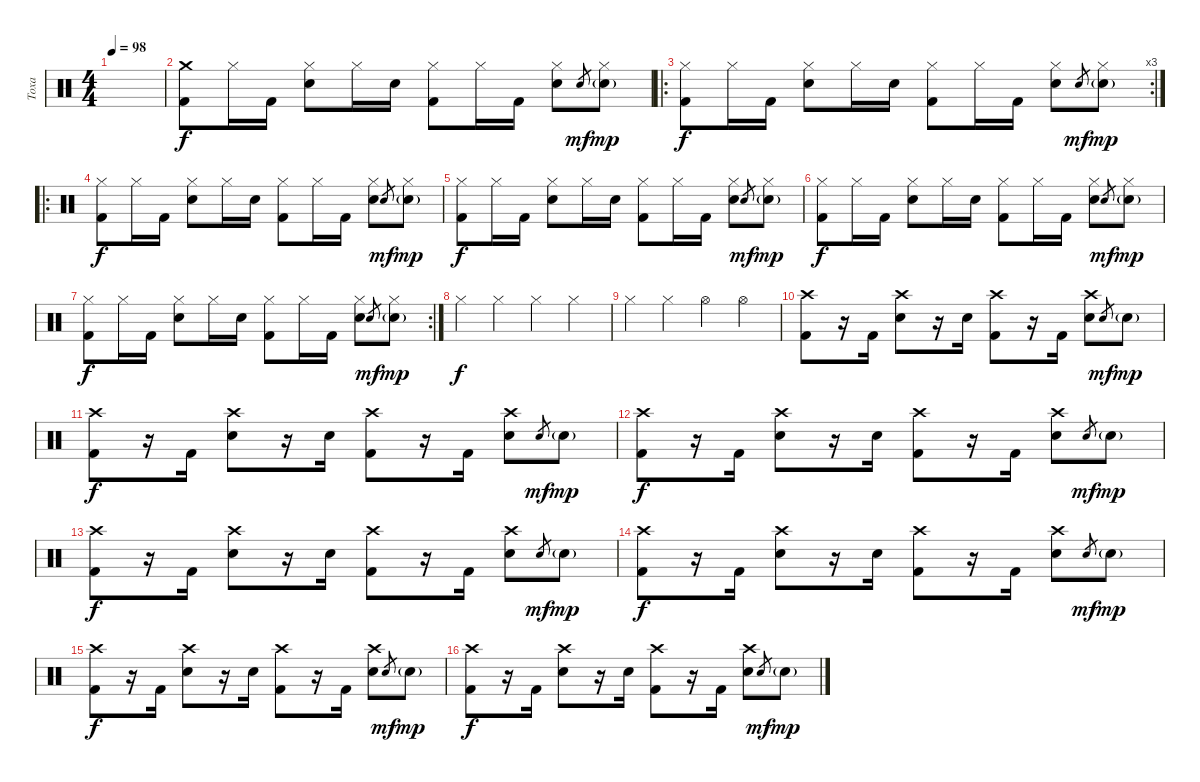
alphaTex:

\track ("Toxa" "Toxa") {instrument percussion}
\staff {score}
\articulation defaults
\ts (4 4)
\tempo 98
\clef neutral
\ks c
|
("Crash medium (hit)" "Kick (hit) 2").8 "Hi-Hat (closed)".16 "Kick (hit) 2".16 ("Hi-Hat (closed)" "Electric Snare (hit)").8 "Hi-Hat (closed)".16 "Electric Snare (hit)".16 ("Hi-Hat (closed)" "Kick (hit) 2").8 "Hi-Hat (closed)".16 "Kick (hit) 2".16 ("Hi-Hat (closed)" "Electric Snare (hit)").8 "Electric Snare (hit)".8{gr dy mf} ("Hi-Hat (closed)" "Electric Snare (hit)"{g}).8{dy mp} |
\ro
\rc 3
("Hi-Hat (closed)" "Kick (hit) 2").8{dy f} "Hi-Hat (closed)".16 "Kick (hit) 2".16 ("Hi-Hat (closed)" "Electric Snare (hit)").8 "Hi-Hat (closed)".16 "Electric Snare (hit)".16 ("Hi-Hat (closed)" "Kick (hit) 2").8 "Hi-Hat (closed)".16 "Kick (hit) 2".16 ("Hi-Hat (closed)" "Electric Snare (hit)").8 "Electric Snare (hit)".8{gr dy mf} ("Hi-Hat (closed)" "Electric Snare (hit)"{g}).8{dy mp} |
\ro
("Hi-Hat (closed)" "Kick (hit) 2").8{dy f} "Hi-Hat (closed)".16 "Kick (hit) 2".16 ("Hi-Hat (closed)" "Electric Snare (hit)").8 "Hi-Hat (closed)".16 "Electric Snare (hit)".16 ("Hi-Hat (closed)" "Kick (hit) 2").8 "Hi-Hat (closed)".16 "Kick (hit) 2".16 ("Hi-Hat (closed)" "Electric Snare (hit)").8 "Electric Snare (hit)".8{gr dy mf} ("Hi-Hat (closed)" "Electric Snare (hit)"{g}).8{dy mp} |
("Hi-Hat (closed)" "Kick (hit) 2").8{dy f} "Hi-Hat (closed)".16 "Kick (hit) 2".16 ("Hi-Hat (closed)" "Electric Snare (hit)").8 "Hi-Hat (closed)".16 "Electric Snare (hit)".16 ("Hi-Hat (closed)" "Kick (hit) 2").8 "Hi-Hat (closed)".16 "Kick (hit) 2".16 ("Hi-Hat (closed)" "Electric Snare (hit)").8 "Electric Snare (hit)".8{gr dy mf} ("Hi-Hat (closed)" "Electric Snare (hit)"{g}).8{dy mp} |
("Hi-Hat (closed)" "Kick (hit) 2").8{dy f} "Hi-Hat (closed)".16 "Kick (hit) 2".16 ("Hi-Hat (closed)" "Electric Snare (hit)").8 "Hi-Hat (closed)".16 "Electric Snare (hit)".16 ("Hi-Hat (closed)" "Kick (hit) 2").8 "Hi-Hat (closed)".16 "Kick (hit) 2".16 ("Hi-Hat (closed)" "Electric Snare (hit)").8 "Electric Snare (hit)".8{gr dy mf} ("Hi-Hat (closed)" "Electric Snare (hit)"{g}).8{dy mp} |
\rc 2
("Hi-Hat (closed)" "Kick (hit) 2").8{dy f} "Hi-Hat (closed)".16 "Kick (hit) 2".16 ("Hi-Hat (closed)" "Electric Snare (hit)").8 "Hi-Hat (closed)".16 "Electric Snare (hit)".16 ("Hi-Hat (closed)" "Kick (hit) 2").8 "Hi-Hat (closed)".16 "Kick (hit) 2".16 ("Hi-Hat (closed)" "Electric Snare (hit)").8 "Electric Snare (hit)".8{gr dy mf} ("Hi-Hat (closed)" "Electric Snare (hit)"{g}).8{dy mp} |
"Hi-Hat (closed)".4{dy f} "Hi-Hat (closed)".4 "Hi-Hat (closed)".4 "Hi-Hat (closed)".4 |
"Hi-Hat (closed)".4 "Hi-Hat (closed)".4 "Hi-Hat (open)".4 "Hi-Hat (open)".4 |
("Crash high (hit)" "Kick (hit) 2").8 r.16 "Kick (hit) 2".16 ("Crash high (hit)" "Electric Snare (hit)").8 r.16 "Electric Snare (hit)".16 ("Crash high (hit)" "Kick (hit) 2").8 r.16 "Kick (hit) 2".16 ("Crash high (hit)" "Electric Snare (hit)").8 "Electric Snare (hit)".8{gr dy mf} "Electric Snare (hit)"{g}.8{dy mp} |
("Crash high (hit)" "Kick (hit) 2").8{dy f} r.16 "Kick (hit) 2".16 ("Crash high (hit)" "Electric Snare (hit)").8 r.16 "Electric Snare (hit)".16 ("Crash high (hit)" "Kick (hit) 2").8 r.16 "Kick (hit) 2".16 ("Crash high (hit)" "Electric Snare (hit)").8 "Electric Snare (hit)".8{gr dy mf} "Electric Snare (hit)"{g}.8{dy mp} |
("Crash high (hit)" "Kick (hit) 2").8{dy f} r.16 "Kick (hit) 2".16 ("Crash high (hit)" "Electric Snare (hit)").8 r.16 "Electric Snare (hit)".16 ("Crash high (hit)" "Kick (hit) 2").8 r.16 "Kick (hit) 2".16 ("Crash high (hit)" "Electric Snare (hit)").8 "Electric Snare (hit)".8{gr dy mf} "Electric Snare (hit)"{g}.8{dy mp} |
("Crash high (hit)" "Kick (hit) 2").8{dy f} r.16 "Kick (hit) 2".16 ("Crash high (hit)" "Electric Snare (hit)").8 r.16 "Electric Snare (hit)".16 ("Crash high (hit)" "Kick (hit) 2").8 r.16 "Kick (hit) 2".16 ("Crash high (hit)" "Electric Snare (hit)").8 "Electric Snare (hit)".8{gr dy mf} "Electric Snare (hit)"{g}.8{dy mp} |
("Crash high (hit)" "Kick (hit) 2").8{dy f} r.16 "Kick (hit) 2".16 ("Crash high (hit)" "Electric Snare (hit)").8 r.16 "Electric Snare (hit)".16 ("Crash high (hit)" "Kick (hit) 2").8 r.16 "Kick (hit) 2".16 ("Crash high (hit)" "Electric Snare (hit)").8 "Electric Snare (hit)".8{gr dy mf} "Electric Snare (hit)"{g}.8{dy mp} |
("Crash high (hit)" "Kick (hit) 2").8{dy f} r.16 "Kick (hit) 2".16 ("Crash high (hit)" "Electric Snare (hit)").8 r.16 "Electric Snare (hit)".16 ("Crash high (hit)" "Kick (hit) 2").8 r.16 "Kick (hit) 2".16 ("Crash high (hit)" "Electric Snare (hit)").8 "Electric Snare (hit)".8{gr dy mf} "Electric Snare (hit)"{g}.8{dy mp} |
("Crash high (hit)" "Kick (hit) 2").8{dy f} r.16 "Kick (hit) 2".16 ("Crash high (hit)" "Electric Snare (hit)").8 r.16 "Electric Snare (hit)".16 ("Crash high (hit)" "Kick (hit) 2").8 r.16 "Kick (hit) 2".16 ("Crash high (hit)" "Electric Snare (hit)").8 "Electric Snare (hit)".8{gr dy mf} "Electric Snare (hit)"{g}.8{dy mp}
